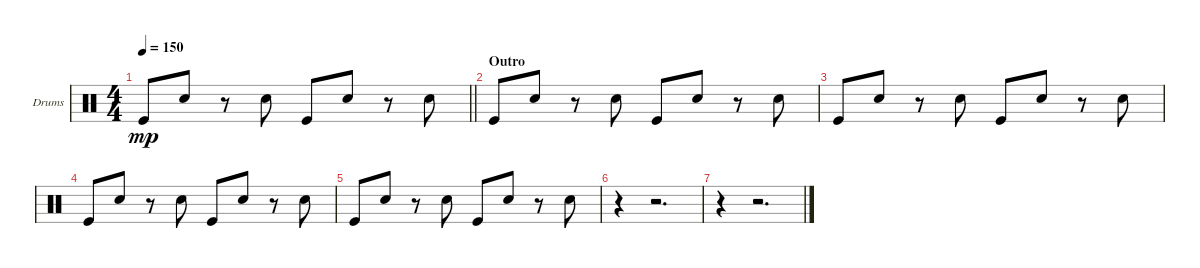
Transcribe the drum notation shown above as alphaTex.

\bracketExtendMode groupsimilarinstruments
\firstSystemTrackNameOrientation horizontal
\otherSystemsTrackNameOrientation horizontal
\track ("Drumkit" "Drums") {instrument percussion}
\staff {score}
\articulation defaults
\ts (4 4)
\tempo 150
\clef neutral
\barLineRight lightlight
\ks c "Kick (hit)".8{dy mp} "Snare (hit) 2".8
r.8 "Snare (hit) 2".8 "Kick (hit)".8 "Snare (hit) 2".8 r.8 "Snare (hit) 2".8 |
\section ("" "Outro")
"Kick (hit)".8 "Snare (hit) 2".8 r.8 "Snare (hit) 2".8 "Kick (hit)".8 "Snare (hit) 2".8 r.8 "Snare (hit) 2".8 |
"Kick (hit)".8 "Snare (hit) 2".8 r.8 "Snare (hit) 2".8 "Kick (hit)".8 "Snare (hit) 2".8 r.8 "Snare (hit) 2".8 |
"Kick (hit)".8 "Snare (hit) 2".8 r.8 "Snare (hit) 2".8 "Kick (hit)".8 "Snare (hit) 2".8 r.8 "Snare (hit) 2".8 |
"Kick (hit)".8 "Snare (hit) 2".8 r.8 "Snare (hit) 2".8 "Kick (hit)".8 "Snare (hit) 2".8 r.8 "Snare (hit) 2".8 |
r.4 r.2{d} |
r.4 r.2{d}
